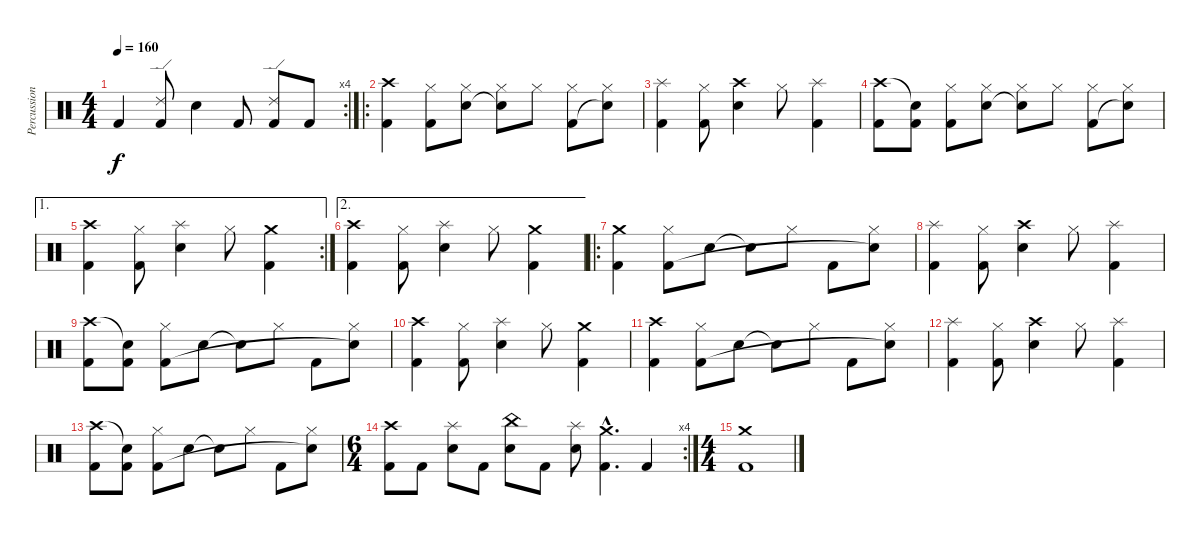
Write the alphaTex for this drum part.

\track ("Percussion" "Percussion") {instrument percussion}
\staff {score}
\articulation defaults
\rc 4
\ts (4 4)
\tempo 160
\clef neutral
\ks c "Kick (hit) 2".4{dy f}
("Ride (edge) 2" "Kick (hit) 2").8 "Snare (hit) 2".4 "Kick (hit) 2".8 ("Ride (edge) 2" "Kick (hit) 2").8 "Kick (hit) 2".8 |
\ro
("Crash high (hit)" "Kick (hit) 2").4 ("Hi-Hat (closed)" "Kick (hit) 2").8 ("Hi-Hat (closed)" "Snare (hit) 2").8 ("Hi-Hat (closed)" "Snare (hit)"{t}).8 "Hi-Hat (closed)".8 ("Hi-Hat (closed)" "Kick (hit) 2").8 ("Hi-Hat (closed)" "Snare (hit)"{t}).8 |
("Splash (hit)" "Kick (hit) 2").4 ("Hi-Hat (closed)" "Kick (hit) 2").8 ("Crash high (hit)" "Snare (hit) 2").4 "Hi-Hat (closed)".8 ("Splash (hit)" "Kick (hit) 2").4 |
("Crash high (hit)" "Kick (hit) 2").8 ("Snare (hit)"{t} "Kick (hit) 2").8 ("Hi-Hat (closed)" "Kick (hit) 2").8 ("Hi-Hat (closed)" "Snare (hit) 2").8 ("Hi-Hat (closed)" "Snare (hit)"{t}).8 "Hi-Hat (closed)".8 ("Hi-Hat (closed)" "Kick (hit) 2").8 ("Hi-Hat (closed)" "Snare (hit)"{t}).8 |
\ae 1
\rc 2
("Crash high (hit)" "Kick (hit) 2").4 ("Hi-Hat (closed)" "Kick (hit) 2").8 ("Splash (hit)" "Snare (hit) 2").4 "Hi-Hat (closed)".8 ("Crash medium (hit)" "Kick (hit) 2").4 |
\ae 2
("Crash high (hit)" "Kick (hit) 2").4 ("Hi-Hat (closed)" "Kick (hit) 2").8 ("Splash (hit)" "Snare (hit) 2").4 "Hi-Hat (closed)".8 ("Crash medium (hit)" "Kick (hit) 2").4 |
\ro
("Crash medium (hit)" "Kick (hit) 2").4 ("Hi-Hat (closed)" "Kick (hit) 2").8 "Snare (hit) 2".8 "Snare (hit)"{t}.8 "Hi-Hat (closed)".8 "Kick (hit) 2".8 ("Hi-Hat (closed)" "Snare (hit)"{t}).8 |
("Splash (hit)" "Kick (hit) 2").4 ("Hi-Hat (closed)" "Kick (hit) 2").8 ("Crash high (hit)" "Snare (hit) 2").4 "Hi-Hat (closed)".8 ("Splash (hit)" "Kick (hit) 2").4 |
("Crash high (hit)" "Kick (hit) 2").8 ("Snare (hit)"{t} "Kick (hit) 2").8 ("Hi-Hat (closed)" "Kick (hit) 2").8 "Snare (hit) 2".8 "Snare (hit)"{t}.8 "Hi-Hat (closed)".8 "Kick (hit) 2".8 ("Hi-Hat (closed)" "Snare (hit)"{t}).8 |
("Crash high (hit)" "Kick (hit) 2").4 ("Hi-Hat (closed)" "Kick (hit) 2").8 ("Splash (hit)" "Snare (hit) 2").4 "Hi-Hat (closed)".8 ("Crash medium (hit)" "Kick (hit) 2").4 |
("Crash high (hit)" "Kick (hit) 2").4 ("Hi-Hat (closed)" "Kick (hit) 2").8 "Snare (hit) 2".8 "Snare (hit)"{t}.8 "Hi-Hat (closed)".8 "Kick (hit) 2".8 ("Hi-Hat (closed)" "Snare (hit)"{t}).8 |
("Splash (hit)" "Kick (hit) 2").4 ("Hi-Hat (closed)" "Kick (hit) 2").8 ("Crash high (hit)" "Snare (hit) 2").4 "Hi-Hat (closed)".8 ("Splash (hit)" "Kick (hit) 2").4 |
("Crash high (hit)" "Kick (hit) 2").8 ("Snare (hit)"{t} "Kick (hit) 2").8 ("Hi-Hat (closed)" "Kick (hit) 2").8 "Snare (hit) 2".8 "Snare (hit)"{t}.8 "Hi-Hat (closed)".8 "Kick (hit) 2".8 ("Hi-Hat (closed)" "Snare (hit)"{t}).8 |
\rc 4
\ts (6 4)
("Crash high (hit)" "Kick (hit) 2").8 "Kick (hit) 2".8 ("Splash (hit)" "Snare (hit) 2").8 "Kick (hit) 2".8 ("China (hit)" "Snare (hit) 2").8 "Kick (hit) 2".8 ("Splash (hit)" "Snare (hit) 2").8 ("Crash medium (hit)"{hac} "Kick (hit) 2"{hac}).4{d} "Kick (hit) 2".4 |
\ts (4 4)
("Crash medium (hit)" "Kick (hit) 2").1
